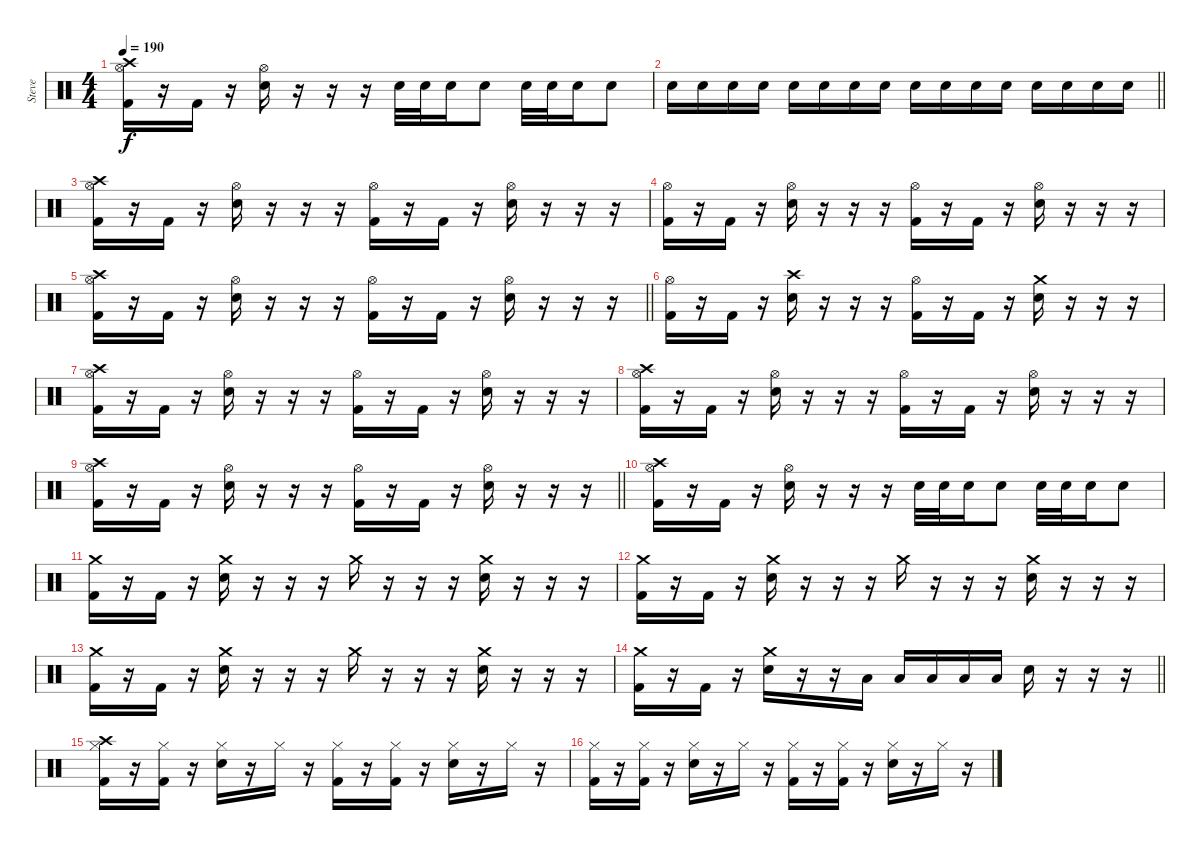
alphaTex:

\track ("Steve" "Steve") {instrument percussion}
\staff {score}
\articulation defaults
\ts (4 4)
\tempo 190
\clef neutral
\ks c
("Hi-Hat (open)" "Crash high (hit)" "Kick (hit) 2").16{dy f} r.16 "Kick (hit) 2".16 r.16 ("Hi-Hat (open)" "Snare (hit) 2").16 r.16 r.16 r.16 "Snare (hit) 2".32 "Snare (hit) 2".32 "Snare (hit) 2".16 "Snare (hit) 2".8 "Snare (hit) 2".32 "Snare (hit) 2".32 "Snare (hit) 2".16 "Snare (hit) 2".8 |
\barLineRight lightlight "Snare (hit) 2".16 "Snare (hit) 2".16 "Snare (hit) 2".16 "Snare (hit) 2".16 "Snare (hit) 2".16 "Snare (hit) 2".16 "Snare (hit) 2".16 "Snare (hit) 2".16 "Snare (hit) 2".16 "Snare (hit) 2".16 "Snare (hit) 2".16 "Snare (hit) 2".16 "Snare (hit) 2".16 "Snare (hit) 2".16 "Snare (hit) 2".16 "Snare (hit) 2".16
|
("Hi-Hat (open)" "Crash high (hit)" "Kick (hit) 2").16 r.16 "Kick (hit) 2".16 r.16 ("Hi-Hat (open)" "Snare (hit) 2").16 r.16 r.16 r.16 ("Hi-Hat (open)" "Kick (hit) 2").16 r.16 "Kick (hit) 2".16 r.16 ("Hi-Hat (open)" "Snare (hit) 2").16 r.16 r.16 r.16 |
("Hi-Hat (open)" "Kick (hit) 2").16 r.16 "Kick (hit) 2".16 r.16 ("Hi-Hat (open)" "Snare (hit) 2").16 r.16 r.16 r.16 ("Hi-Hat (open)" "Kick (hit) 2").16 r.16 "Kick (hit) 2".16 r.16 ("Hi-Hat (open)" "Snare (hit) 2").16 r.16 r.16 r.16 |
\barLineRight lightlight
("Hi-Hat (open)" "Crash high (hit)" "Kick (hit) 2").16 r.16 "Kick (hit) 2".16 r.16 ("Hi-Hat (open)" "Snare (hit) 2").16 r.16 r.16 r.16 ("Hi-Hat (open)" "Kick (hit) 2").16 r.16 "Kick (hit) 2".16 r.16 ("Hi-Hat (open)" "Snare (hit) 2").16 r.16 r.16 r.16 |
("Hi-Hat (open)" "Kick (hit) 2").16 r.16 "Kick (hit) 2".16 r.16 ("Crash high (hit)" "Snare (hit) 2").16 r.16 r.16 r.16 ("Hi-Hat (open)" "Kick (hit) 2").16 r.16 "Kick (hit) 2".16 r.16 ("Crash medium (hit)" "Snare (hit) 2").16 r.16 r.16 r.16 |
("Hi-Hat (open)" "Crash high (hit)" "Kick (hit) 2").16 r.16 "Kick (hit) 2".16 r.16 ("Hi-Hat (open)" "Snare (hit) 2").16 r.16 r.16 r.16 ("Hi-Hat (open)" "Kick (hit) 2").16 r.16 "Kick (hit) 2".16 r.16 ("Hi-Hat (open)" "Snare (hit) 2").16 r.16 r.16 r.16 |
("Hi-Hat (open)" "Crash high (hit)" "Kick (hit) 2").16 r.16 "Kick (hit) 2".16 r.16 ("Hi-Hat (open)" "Snare (hit) 2").16 r.16 r.16 r.16 ("Hi-Hat (open)" "Kick (hit) 2").16 r.16 "Kick (hit) 2".16 r.16 ("Hi-Hat (open)" "Snare (hit) 2").16 r.16 r.16 r.16 |
\barLineRight lightlight
("Hi-Hat (open)" "Crash high (hit)" "Kick (hit) 2").16 r.16 "Kick (hit) 2".16 r.16 ("Hi-Hat (open)" "Snare (hit) 2").16 r.16 r.16 r.16 ("Hi-Hat (open)" "Kick (hit) 2").16 r.16 "Kick (hit) 2".16 r.16 ("Hi-Hat (open)" "Snare (hit) 2").16 r.16 r.16 r.16 |
("Hi-Hat (open)" "Crash high (hit)" "Kick (hit) 2").16 r.16 "Kick (hit) 2".16 r.16 ("Hi-Hat (open)" "Snare (hit) 2").16 r.16 r.16 r.16 "Snare (hit) 2".32 "Snare (hit) 2".32 "Snare (hit) 2".16 "Snare (hit) 2".8 "Snare (hit) 2".32 "Snare (hit) 2".32 "Snare (hit) 2".16 "Snare (hit) 2".8 |
("Crash medium (hit)" "Kick (hit) 2").16 r.16 "Kick (hit) 2".16 r.16 ("Crash medium (hit)" "Snare (hit) 2").16 r.16 r.16 r.16 "Crash medium (hit)".16 r.16 r.16 r.16 ("Crash medium (hit)" "Snare (hit) 2").16 r.16 r.16 r.16 |
("Crash medium (hit)" "Kick (hit) 2").16 r.16 "Kick (hit) 2".16 r.16 ("Crash medium (hit)" "Snare (hit) 2").16 r.16 r.16 r.16 "Crash medium (hit)".16 r.16 r.16 r.16 ("Crash medium (hit)" "Snare (hit) 2").16 r.16 r.16 r.16 |
("Crash medium (hit)" "Kick (hit) 2").16 r.16 "Kick (hit) 2".16 r.16 ("Crash medium (hit)" "Snare (hit) 2").16 r.16 r.16 r.16 "Crash medium (hit)".16 r.16 r.16 r.16 ("Crash medium (hit)" "Snare (hit) 2").16 r.16 r.16 r.16 |
\barLineRight lightlight
("Crash medium (hit)" "Kick (hit) 2").16 r.16 "Kick (hit) 2".16 r.16 ("Crash medium (hit)" "Snare (hit) 2").16 r.16 r.16 "Low Floor Tom (hit)".16 "Low Floor Tom (hit)".16 "Low Floor Tom (hit)".16 "Low Floor Tom (hit)".16 "Low Floor Tom (hit)".16 "Snare (hit) 2".16 r.16 r.16 r.16 |
("Hi-Hat (closed)" "Crash high (hit)" "Kick (hit) 2").16 r.16 ("Hi-Hat (closed)" "Kick (hit) 2").16 r.16 ("Hi-Hat (closed)" "Snare (hit) 2").16 r.16 "Hi-Hat (closed)".16 r.16 ("Hi-Hat (closed)" "Kick (hit) 2").16 r.16 ("Hi-Hat (closed)" "Kick (hit) 2").16 r.16 ("Hi-Hat (closed)" "Snare (hit) 2").16 r.16 "Hi-Hat (closed)".16 r.16 |
("Hi-Hat (closed)" "Kick (hit) 2").16 r.16 ("Hi-Hat (closed)" "Kick (hit) 2").16 r.16 ("Hi-Hat (closed)" "Snare (hit) 2").16 r.16 "Hi-Hat (closed)".16 r.16 ("Hi-Hat (closed)" "Kick (hit) 2").16 r.16 ("Hi-Hat (closed)" "Kick (hit) 2").16 r.16 ("Hi-Hat (closed)" "Snare (hit) 2").16 r.16 "Hi-Hat (closed)".16 r.16
